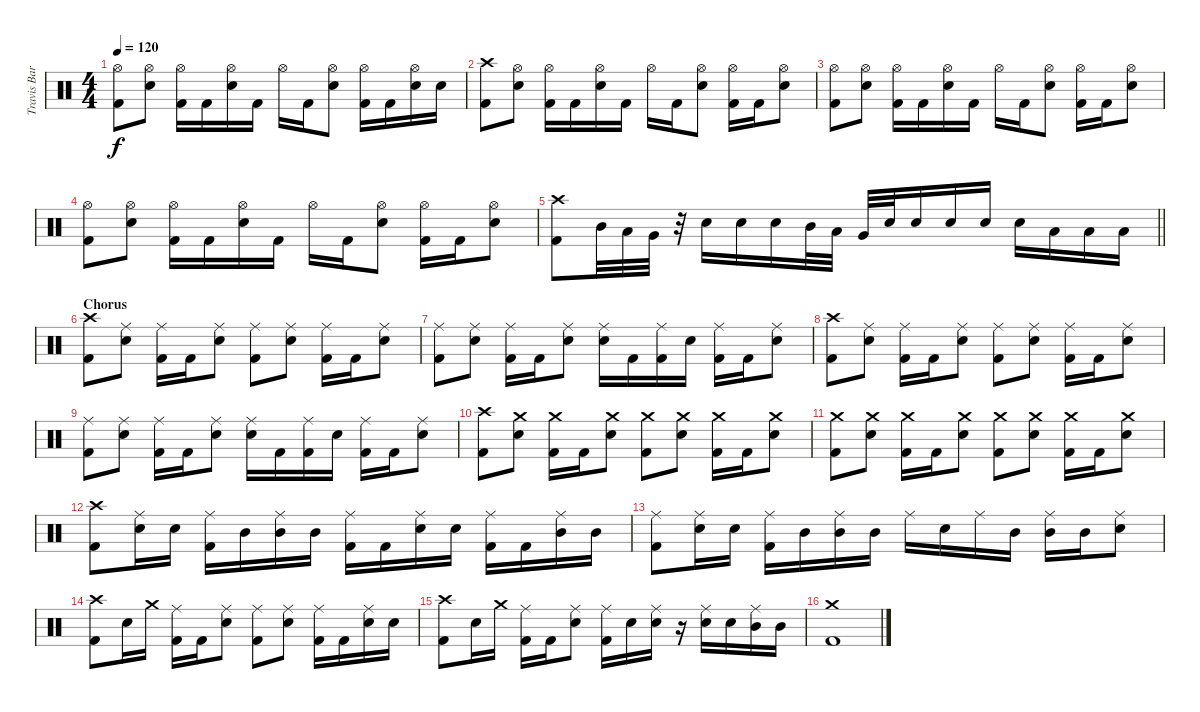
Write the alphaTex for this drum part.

\track ("Travis Barker - Drums" "Travis Bar") {instrument percussion}
\staff {score}
\articulation defaults
\ts (4 4)
\tempo 120
\clef neutral
\ks c
("Hi-Hat (open)" "Kick (hit) 2").8{dy f} ("Hi-Hat (open)" "Electric Snare (hit)").8 ("Hi-Hat (open)" "Kick (hit) 2").16 "Kick (hit) 2".16 ("Hi-Hat (open)" "Electric Snare (hit)").16 "Kick (hit) 2".16 "Hi-Hat (open)".16 "Kick (hit) 2".16 ("Hi-Hat (open)" "Electric Snare (hit)").8 ("Hi-Hat (open)" "Kick (hit) 2").16 "Kick (hit) 2".16 ("Hi-Hat (open)" "Electric Snare (hit)").16 "Electric Snare (hit)".16 |
("Crash high (hit)" "Kick (hit) 2").8 ("Hi-Hat (open)" "Electric Snare (hit)").8 ("Hi-Hat (open)" "Kick (hit) 2").16 "Kick (hit) 2".16 ("Hi-Hat (open)" "Electric Snare (hit)").16 "Kick (hit) 2".16 "Hi-Hat (open)".16 "Kick (hit) 2".16 ("Hi-Hat (open)" "Electric Snare (hit)").8 ("Hi-Hat (open)" "Kick (hit) 2").16 "Kick (hit) 2".16 ("Hi-Hat (open)" "Electric Snare (hit)").8 |
("Hi-Hat (open)" "Kick (hit) 2").8 ("Hi-Hat (open)" "Electric Snare (hit)").8 ("Hi-Hat (open)" "Kick (hit) 2").16 "Kick (hit) 2".16 ("Hi-Hat (open)" "Electric Snare (hit)").16 "Kick (hit) 2".16 "Hi-Hat (open)".16 "Kick (hit) 2".16 ("Hi-Hat (open)" "Electric Snare (hit)").8 ("Hi-Hat (open)" "Kick (hit) 2").16 "Kick (hit) 2".16 ("Hi-Hat (open)" "Electric Snare (hit)").8 |
("Hi-Hat (open)" "Kick (hit) 2").8 ("Hi-Hat (open)" "Electric Snare (hit)").8 ("Hi-Hat (open)" "Kick (hit) 2").16 "Kick (hit) 2".16 ("Hi-Hat (open)" "Electric Snare (hit)").16 "Kick (hit) 2".16 "Hi-Hat (open)".16 "Kick (hit) 2".16 ("Hi-Hat (open)" "Electric Snare (hit)").8 ("Hi-Hat (open)" "Kick (hit) 2").16 "Kick (hit) 2".16 ("Hi-Hat (open)" "Electric Snare (hit)").8 |
\barLineRight lightlight
("Crash high (hit)" "Kick (hit) 2").8 "Mid Tom (hit)".32 "Low Tom (hit)".32 "Very Low Tom (hit)".32 r.32 "Electric Snare (hit)".16 "Electric Snare (hit)".16 "Electric Snare (hit)".16 "Mid Tom (hit)".32 "Low Tom (hit)".32 "Very Low Tom (hit)".32 "Electric Snare (hit)".32 "Electric Snare (hit)".16 "Electric Snare (hit)".16 "Electric Snare (hit)".16 "Electric Snare (hit)".16 "Low Tom (hit)".16 "Low Tom (hit)".16 "Low Tom (hit)".16 |
\section ("" "Chorus")
("Crash high (hit)" "Kick (hit) 2").8 ("Ride (middle)" "Electric Snare (hit)").8 ("Ride (middle)" "Kick (hit) 2").16 "Kick (hit) 2".16 ("Ride (middle)" "Electric Snare (hit)").8 ("Ride (middle)" "Kick (hit) 2").8 ("Ride (middle)" "Electric Snare (hit)").8 ("Ride (middle)" "Kick (hit) 2").16 "Kick (hit) 2".16 ("Ride (middle)" "Electric Snare (hit)").8 |
("Ride (middle)" "Kick (hit) 2").8 ("Ride (middle)" "Electric Snare (hit)").8 ("Ride (middle)" "Kick (hit) 2").16 "Kick (hit) 2".16 ("Ride (middle)" "Electric Snare (hit)").8 ("Ride (middle)" "Electric Snare (hit)").16 "Kick (hit) 2".16 ("Ride (middle)" "Kick (hit) 2").16 "Electric Snare (hit)".16 ("Ride (middle)" "Kick (hit) 2").16 "Kick (hit) 2".16 ("Ride (middle)" "Electric Snare (hit)").8 |
("Crash high (hit)" "Kick (hit) 2").8 ("Ride (middle)" "Electric Snare (hit)").8 ("Ride (middle)" "Kick (hit) 2").16 "Kick (hit) 2".16 ("Ride (middle)" "Electric Snare (hit)").8 ("Ride (middle)" "Kick (hit) 2").8 ("Ride (middle)" "Electric Snare (hit)").8 ("Ride (middle)" "Kick (hit) 2").16 "Kick (hit) 2".16 ("Ride (middle)" "Electric Snare (hit)").8 |
("Ride (middle)" "Kick (hit) 2").8 ("Ride (middle)" "Electric Snare (hit)").8 ("Ride (middle)" "Kick (hit) 2").16 "Kick (hit) 2".16 ("Ride (middle)" "Electric Snare (hit)").8 ("Ride (middle)" "Electric Snare (hit)").16 "Kick (hit) 2".16 ("Ride (middle)" "Kick (hit) 2").16 "Electric Snare (hit)".16 ("Ride (middle)" "Kick (hit) 2").16 "Kick (hit) 2".16 ("Ride (middle)" "Electric Snare (hit)").8 |
("Crash high (hit)" "Kick (hit) 2").8 ("Crash medium (hit)" "Electric Snare (hit)").8 ("Crash medium (hit)" "Kick (hit) 2").16 "Kick (hit) 2".16 ("Crash medium (hit)" "Electric Snare (hit)").8 ("Crash medium (hit)" "Kick (hit) 2").8 ("Crash medium (hit)" "Electric Snare (hit)").8 ("Crash medium (hit)" "Kick (hit) 2").16 "Kick (hit) 2".16 ("Crash medium (hit)" "Electric Snare (hit)").8 |
("Crash medium (hit)" "Kick (hit) 2").8 ("Crash medium (hit)" "Electric Snare (hit)").8 ("Crash medium (hit)" "Kick (hit) 2").16 "Kick (hit) 2".16 ("Crash medium (hit)" "Electric Snare (hit)").8 ("Crash medium (hit)" "Kick (hit) 2").8 ("Crash medium (hit)" "Electric Snare (hit)").8 ("Crash medium (hit)" "Kick (hit) 2").16 "Kick (hit) 2".16 ("Crash medium (hit)" "Electric Snare (hit)").8 |
("Crash high (hit)" "Kick (hit) 2").8 ("Ride (middle)" "Electric Snare (hit)").16 "Electric Snare (hit)".16 ("Ride (middle)" "Kick (hit) 2").16 "Mid Tom (hit)".16 ("Ride (middle)" "Mid Tom (hit)").16 "Mid Tom (hit)".16 ("Ride (middle)" "Kick (hit) 2").16 "Kick (hit) 2".16 ("Ride (middle)" "Electric Snare (hit)").16 "Electric Snare (hit)".16 ("Ride (middle)" "Kick (hit) 2").16 "Kick (hit) 2".16 ("Ride (middle)" "Mid Tom (hit)").16 "Mid Tom (hit)".16 |
("Ride (middle)" "Kick (hit) 2").8 ("Ride (middle)" "Electric Snare (hit)").16 "Electric Snare (hit)".16 ("Ride (middle)" "Kick (hit) 2").16 "Mid Tom (hit)".16 ("Ride (middle)" "Mid Tom (hit)").16 "Mid Tom (hit)".16 "Ride (middle)".16 "Electric Snare (hit)".16 "Ride (middle)".16 "Mid Tom (hit)".16 ("Ride (middle)" "Mid Tom (hit)").16 "Mid Tom (hit)".16 ("Ride (middle)" "Electric Snare (hit)").8 |
("Crash high (hit)" "Kick (hit) 2").8 "Electric Snare (hit)".16 "Crash medium (hit)".16 ("Ride (middle)" "Kick (hit) 2").16 "Kick (hit) 2".16 ("Ride (middle)" "Electric Snare (hit)").8 ("Ride (middle)" "Kick (hit) 2").8 ("Ride (middle)" "Electric Snare (hit)").8 ("Ride (middle)" "Kick (hit) 2").16 "Kick (hit) 2".16 ("Ride (middle)" "Electric Snare (hit)").16 "Electric Snare (hit)".16 |
("Crash high (hit)" "Kick (hit) 2").8 "Electric Snare (hit)".16 "Crash medium (hit)".16 ("Ride (middle)" "Kick (hit) 2").16 "Kick (hit) 2".16 ("Ride (middle)" "Electric Snare (hit)").8 ("Ride (middle)" "Kick (hit) 2").16 "Electric Snare (hit)".16 ("Ride (middle)" "Electric Snare (hit)").16 r.16 ("Ride (middle)" "Electric Snare (hit)").16 "Electric Snare (hit)".16 ("Ride (middle)" "Mid Tom (hit)").16 "Mid Tom (hit)".16 |
("Crash medium (hit)" "Kick (hit) 2").1
